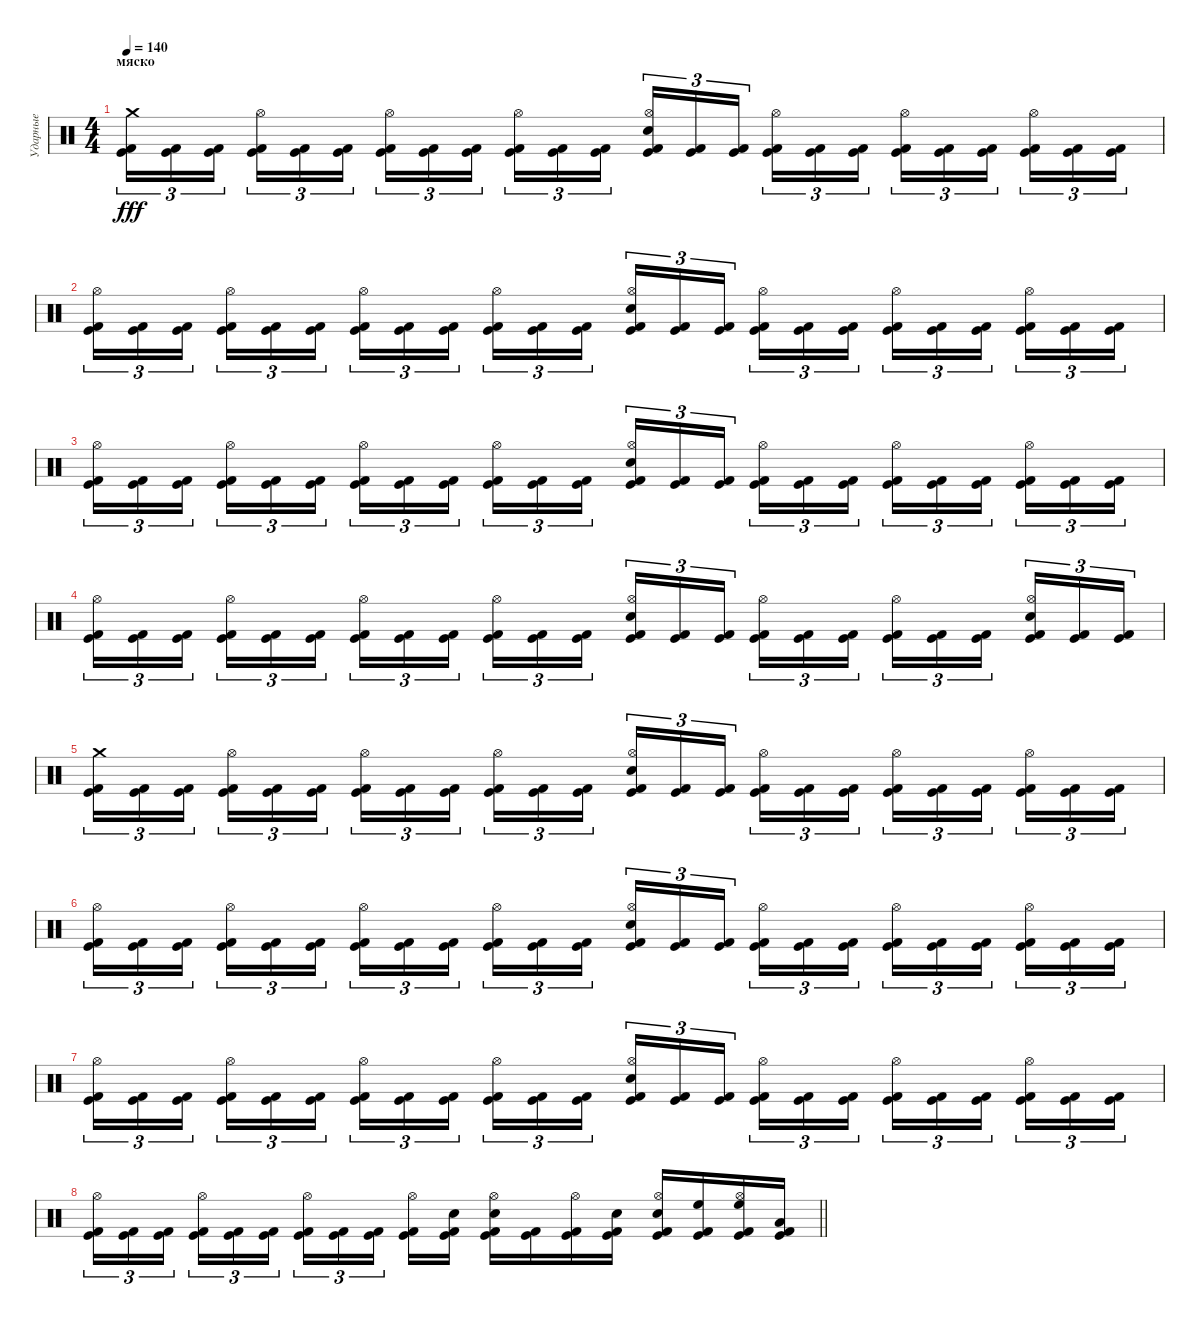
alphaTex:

\track ("Ударные" "Ударные") {instrument percussion}
\staff {score}
\articulation defaults
\ts (4 4)
\section ("" "мяско")
\tempo 140
\clef neutral
\ks c
("Kick (hit)" "Kick (hit) 2" "Crash medium (hit)").16{tu (3 2) dy fff} ("Kick (hit)" "Kick (hit) 2").16{tu (3 2)} ("Kick (hit)" "Kick (hit) 2").16{tu (3 2) beam splitsecondary} ("Hi-Hat (open)" "Kick (hit)" "Kick (hit) 2").16{tu (3 2)} ("Kick (hit)" "Kick (hit) 2").16{tu (3 2)} ("Kick (hit)" "Kick (hit) 2").16{tu (3 2)} ("Hi-Hat (open)" "Kick (hit)" "Kick (hit) 2").16{tu (3 2)} ("Kick (hit)" "Kick (hit) 2").16{tu (3 2)} ("Kick (hit)" "Kick (hit) 2").16{tu (3 2) beam splitsecondary} ("Hi-Hat (open)" "Kick (hit)" "Kick (hit) 2").16{tu (3 2)} ("Kick (hit)" "Kick (hit) 2").16{tu (3 2)} ("Kick (hit)" "Kick (hit) 2").16{tu (3 2)} ("Hi-Hat (open)" "Kick (hit)" "Kick (hit) 2" "Electric Snare (hit)").16{tu (3 2)} ("Kick (hit)" "Kick (hit) 2").16{tu (3 2)} ("Kick (hit)" "Kick (hit) 2").16{tu (3 2) beam splitsecondary} ("Hi-Hat (open)" "Kick (hit)" "Kick (hit) 2").16{tu (3 2)} ("Kick (hit)" "Kick (hit) 2").16{tu (3 2)} ("Kick (hit)" "Kick (hit) 2").16{tu (3 2)} ("Hi-Hat (open)" "Kick (hit)" "Kick (hit) 2").16{tu (3 2)} ("Kick (hit)" "Kick (hit) 2").16{tu (3 2)} ("Kick (hit)" "Kick (hit) 2").16{tu (3 2) beam splitsecondary} ("Hi-Hat (open)" "Kick (hit)" "Kick (hit) 2").16{tu (3 2)} ("Kick (hit)" "Kick (hit) 2").16{tu (3 2)} ("Kick (hit)" "Kick (hit) 2").16{tu (3 2)} |
("Hi-Hat (open)" "Kick (hit)" "Kick (hit) 2").16{tu (3 2)} ("Kick (hit)" "Kick (hit) 2").16{tu (3 2)} ("Kick (hit)" "Kick (hit) 2").16{tu (3 2) beam splitsecondary} ("Hi-Hat (open)" "Kick (hit)" "Kick (hit) 2").16{tu (3 2)} ("Kick (hit)" "Kick (hit) 2").16{tu (3 2)} ("Kick (hit)" "Kick (hit) 2").16{tu (3 2)} ("Hi-Hat (open)" "Kick (hit)" "Kick (hit) 2").16{tu (3 2)} ("Kick (hit)" "Kick (hit) 2").16{tu (3 2)} ("Kick (hit)" "Kick (hit) 2").16{tu (3 2) beam splitsecondary} ("Hi-Hat (open)" "Kick (hit)" "Kick (hit) 2").16{tu (3 2)} ("Kick (hit)" "Kick (hit) 2").16{tu (3 2)} ("Kick (hit)" "Kick (hit) 2").16{tu (3 2)} ("Hi-Hat (open)" "Kick (hit)" "Kick (hit) 2" "Electric Snare (hit)").16{tu (3 2)} ("Kick (hit)" "Kick (hit) 2").16{tu (3 2)} ("Kick (hit)" "Kick (hit) 2").16{tu (3 2) beam splitsecondary} ("Hi-Hat (open)" "Kick (hit)" "Kick (hit) 2").16{tu (3 2)} ("Kick (hit)" "Kick (hit) 2").16{tu (3 2)} ("Kick (hit)" "Kick (hit) 2").16{tu (3 2)} ("Hi-Hat (open)" "Kick (hit)" "Kick (hit) 2").16{tu (3 2)} ("Kick (hit)" "Kick (hit) 2").16{tu (3 2)} ("Kick (hit)" "Kick (hit) 2").16{tu (3 2) beam splitsecondary} ("Hi-Hat (open)" "Kick (hit)" "Kick (hit) 2").16{tu (3 2)} ("Kick (hit)" "Kick (hit) 2").16{tu (3 2)} ("Kick (hit)" "Kick (hit) 2").16{tu (3 2)} |
("Hi-Hat (open)" "Kick (hit)" "Kick (hit) 2").16{tu (3 2)} ("Kick (hit)" "Kick (hit) 2").16{tu (3 2)} ("Kick (hit)" "Kick (hit) 2").16{tu (3 2) beam splitsecondary} ("Hi-Hat (open)" "Kick (hit)" "Kick (hit) 2").16{tu (3 2)} ("Kick (hit)" "Kick (hit) 2").16{tu (3 2)} ("Kick (hit)" "Kick (hit) 2").16{tu (3 2)} ("Hi-Hat (open)" "Kick (hit)" "Kick (hit) 2").16{tu (3 2)} ("Kick (hit)" "Kick (hit) 2").16{tu (3 2)} ("Kick (hit)" "Kick (hit) 2").16{tu (3 2) beam splitsecondary} ("Hi-Hat (open)" "Kick (hit)" "Kick (hit) 2").16{tu (3 2)} ("Kick (hit)" "Kick (hit) 2").16{tu (3 2)} ("Kick (hit)" "Kick (hit) 2").16{tu (3 2)} ("Hi-Hat (open)" "Kick (hit)" "Kick (hit) 2" "Electric Snare (hit)").16{tu (3 2)} ("Kick (hit)" "Kick (hit) 2").16{tu (3 2)} ("Kick (hit)" "Kick (hit) 2").16{tu (3 2) beam splitsecondary} ("Hi-Hat (open)" "Kick (hit)" "Kick (hit) 2").16{tu (3 2)} ("Kick (hit)" "Kick (hit) 2").16{tu (3 2)} ("Kick (hit)" "Kick (hit) 2").16{tu (3 2)} ("Hi-Hat (open)" "Kick (hit)" "Kick (hit) 2").16{tu (3 2)} ("Kick (hit)" "Kick (hit) 2").16{tu (3 2)} ("Kick (hit)" "Kick (hit) 2").16{tu (3 2) beam splitsecondary} ("Hi-Hat (open)" "Kick (hit)" "Kick (hit) 2").16{tu (3 2)} ("Kick (hit)" "Kick (hit) 2").16{tu (3 2)} ("Kick (hit)" "Kick (hit) 2").16{tu (3 2)} |
("Hi-Hat (open)" "Kick (hit)" "Kick (hit) 2").16{tu (3 2)} ("Kick (hit)" "Kick (hit) 2").16{tu (3 2)} ("Kick (hit)" "Kick (hit) 2").16{tu (3 2) beam splitsecondary} ("Hi-Hat (open)" "Kick (hit)" "Kick (hit) 2").16{tu (3 2)} ("Kick (hit)" "Kick (hit) 2").16{tu (3 2)} ("Kick (hit)" "Kick (hit) 2").16{tu (3 2)} ("Hi-Hat (open)" "Kick (hit)" "Kick (hit) 2").16{tu (3 2)} ("Kick (hit)" "Kick (hit) 2").16{tu (3 2)} ("Kick (hit)" "Kick (hit) 2").16{tu (3 2) beam splitsecondary} ("Hi-Hat (open)" "Kick (hit)" "Kick (hit) 2").16{tu (3 2)} ("Kick (hit)" "Kick (hit) 2").16{tu (3 2)} ("Kick (hit)" "Kick (hit) 2").16{tu (3 2)} ("Hi-Hat (open)" "Kick (hit)" "Kick (hit) 2" "Electric Snare (hit)").16{tu (3 2)} ("Kick (hit)" "Kick (hit) 2").16{tu (3 2)} ("Kick (hit)" "Kick (hit) 2").16{tu (3 2) beam splitsecondary} ("Hi-Hat (open)" "Kick (hit)" "Kick (hit) 2").16{tu (3 2)} ("Kick (hit)" "Kick (hit) 2").16{tu (3 2)} ("Kick (hit)" "Kick (hit) 2").16{tu (3 2)} ("Hi-Hat (open)" "Kick (hit)" "Kick (hit) 2").16{tu (3 2)} ("Kick (hit)" "Kick (hit) 2").16{tu (3 2)} ("Kick (hit)" "Kick (hit) 2").16{tu (3 2) beam splitsecondary} ("Hi-Hat (open)" "Kick (hit)" "Kick (hit) 2" "Electric Snare (hit)").16{tu (3 2)} ("Kick (hit)" "Kick (hit) 2").16{tu (3 2)} ("Kick (hit)" "Kick (hit) 2").16{tu (3 2)} |
("Kick (hit)" "Kick (hit) 2" "Crash medium (hit)").16{tu (3 2)} ("Kick (hit)" "Kick (hit) 2").16{tu (3 2)} ("Kick (hit)" "Kick (hit) 2").16{tu (3 2) beam splitsecondary} ("Hi-Hat (open)" "Kick (hit)" "Kick (hit) 2").16{tu (3 2)} ("Kick (hit)" "Kick (hit) 2").16{tu (3 2)} ("Kick (hit)" "Kick (hit) 2").16{tu (3 2)} ("Hi-Hat (open)" "Kick (hit)" "Kick (hit) 2").16{tu (3 2)} ("Kick (hit)" "Kick (hit) 2").16{tu (3 2)} ("Kick (hit)" "Kick (hit) 2").16{tu (3 2) beam splitsecondary} ("Hi-Hat (open)" "Kick (hit)" "Kick (hit) 2").16{tu (3 2)} ("Kick (hit)" "Kick (hit) 2").16{tu (3 2)} ("Kick (hit)" "Kick (hit) 2").16{tu (3 2)} ("Hi-Hat (open)" "Kick (hit)" "Kick (hit) 2" "Electric Snare (hit)").16{tu (3 2)} ("Kick (hit)" "Kick (hit) 2").16{tu (3 2)} ("Kick (hit)" "Kick (hit) 2").16{tu (3 2) beam splitsecondary} ("Hi-Hat (open)" "Kick (hit)" "Kick (hit) 2").16{tu (3 2)} ("Kick (hit)" "Kick (hit) 2").16{tu (3 2)} ("Kick (hit)" "Kick (hit) 2").16{tu (3 2)} ("Hi-Hat (open)" "Kick (hit)" "Kick (hit) 2").16{tu (3 2)} ("Kick (hit)" "Kick (hit) 2").16{tu (3 2)} ("Kick (hit)" "Kick (hit) 2").16{tu (3 2) beam splitsecondary} ("Hi-Hat (open)" "Kick (hit)" "Kick (hit) 2").16{tu (3 2)} ("Kick (hit)" "Kick (hit) 2").16{tu (3 2)} ("Kick (hit)" "Kick (hit) 2").16{tu (3 2)} |
("Hi-Hat (open)" "Kick (hit)" "Kick (hit) 2").16{tu (3 2)} ("Kick (hit)" "Kick (hit) 2").16{tu (3 2)} ("Kick (hit)" "Kick (hit) 2").16{tu (3 2) beam splitsecondary} ("Hi-Hat (open)" "Kick (hit)" "Kick (hit) 2").16{tu (3 2)} ("Kick (hit)" "Kick (hit) 2").16{tu (3 2)} ("Kick (hit)" "Kick (hit) 2").16{tu (3 2)} ("Hi-Hat (open)" "Kick (hit)" "Kick (hit) 2").16{tu (3 2)} ("Kick (hit)" "Kick (hit) 2").16{tu (3 2)} ("Kick (hit)" "Kick (hit) 2").16{tu (3 2) beam splitsecondary} ("Hi-Hat (open)" "Kick (hit)" "Kick (hit) 2").16{tu (3 2)} ("Kick (hit)" "Kick (hit) 2").16{tu (3 2)} ("Kick (hit)" "Kick (hit) 2").16{tu (3 2)} ("Hi-Hat (open)" "Kick (hit)" "Kick (hit) 2" "Electric Snare (hit)").16{tu (3 2)} ("Kick (hit)" "Kick (hit) 2").16{tu (3 2)} ("Kick (hit)" "Kick (hit) 2").16{tu (3 2) beam splitsecondary} ("Hi-Hat (open)" "Kick (hit)" "Kick (hit) 2").16{tu (3 2)} ("Kick (hit)" "Kick (hit) 2").16{tu (3 2)} ("Kick (hit)" "Kick (hit) 2").16{tu (3 2)} ("Hi-Hat (open)" "Kick (hit)" "Kick (hit) 2").16{tu (3 2)} ("Kick (hit)" "Kick (hit) 2").16{tu (3 2)} ("Kick (hit)" "Kick (hit) 2").16{tu (3 2) beam splitsecondary} ("Hi-Hat (open)" "Kick (hit)" "Kick (hit) 2").16{tu (3 2)} ("Kick (hit)" "Kick (hit) 2").16{tu (3 2)} ("Kick (hit)" "Kick (hit) 2").16{tu (3 2)} |
("Hi-Hat (open)" "Kick (hit)" "Kick (hit) 2").16{tu (3 2)} ("Kick (hit)" "Kick (hit) 2").16{tu (3 2)} ("Kick (hit)" "Kick (hit) 2").16{tu (3 2) beam splitsecondary} ("Hi-Hat (open)" "Kick (hit)" "Kick (hit) 2").16{tu (3 2)} ("Kick (hit)" "Kick (hit) 2").16{tu (3 2)} ("Kick (hit)" "Kick (hit) 2").16{tu (3 2)} ("Hi-Hat (open)" "Kick (hit)" "Kick (hit) 2").16{tu (3 2)} ("Kick (hit)" "Kick (hit) 2").16{tu (3 2)} ("Kick (hit)" "Kick (hit) 2").16{tu (3 2) beam splitsecondary} ("Hi-Hat (open)" "Kick (hit)" "Kick (hit) 2").16{tu (3 2)} ("Kick (hit)" "Kick (hit) 2").16{tu (3 2)} ("Kick (hit)" "Kick (hit) 2").16{tu (3 2)} ("Hi-Hat (open)" "Kick (hit)" "Kick (hit) 2" "Electric Snare (hit)").16{tu (3 2)} ("Kick (hit)" "Kick (hit) 2").16{tu (3 2)} ("Kick (hit)" "Kick (hit) 2").16{tu (3 2) beam splitsecondary} ("Hi-Hat (open)" "Kick (hit)" "Kick (hit) 2").16{tu (3 2)} ("Kick (hit)" "Kick (hit) 2").16{tu (3 2)} ("Kick (hit)" "Kick (hit) 2").16{tu (3 2)} ("Hi-Hat (open)" "Kick (hit)" "Kick (hit) 2").16{tu (3 2)} ("Kick (hit)" "Kick (hit) 2").16{tu (3 2)} ("Kick (hit)" "Kick (hit) 2").16{tu (3 2) beam splitsecondary} ("Hi-Hat (open)" "Kick (hit)" "Kick (hit) 2").16{tu (3 2)} ("Kick (hit)" "Kick (hit) 2").16{tu (3 2)} ("Kick (hit)" "Kick (hit) 2").16{tu (3 2)} |
\barLineRight lightlight
("Hi-Hat (open)" "Kick (hit)" "Kick (hit) 2").16{tu (3 2)} ("Kick (hit)" "Kick (hit) 2").16{tu (3 2)} ("Kick (hit)" "Kick (hit) 2").16{tu (3 2) beam splitsecondary} ("Hi-Hat (open)" "Kick (hit)" "Kick (hit) 2").16{tu (3 2)} ("Kick (hit)" "Kick (hit) 2").16{tu (3 2)} ("Kick (hit)" "Kick (hit) 2").16{tu (3 2)} ("Hi-Hat (open)" "Kick (hit)" "Kick (hit) 2").16{tu (3 2)} ("Kick (hit)" "Kick (hit) 2").16{tu (3 2)} ("Kick (hit)" "Kick (hit) 2").16{tu (3 2) beam splitsecondary} ("Hi-Hat (open)" "Kick (hit)" "Kick (hit) 2").16 ("Kick (hit)" "Kick (hit) 2" "Electric Snare (hit)").16 ("Hi-Hat (open)" "Kick (hit)" "Kick (hit) 2" "Electric Snare (hit)").16 ("Kick (hit)" "Kick (hit) 2").16 ("Hi-Hat (open)" "Kick (hit)" "Kick (hit) 2").16 ("Kick (hit)" "Kick (hit) 2" "Electric Snare (hit)").16 ("Hi-Hat (open)" "Kick (hit)" "Kick (hit) 2" "Electric Snare (hit)").16 ("Kick (hit)" "Kick (hit) 2" "High Floor Tom (hit)").16 ("Hi-Hat (open)" "Kick (hit)" "Kick (hit) 2" "High Floor Tom (hit)").16 ("Kick (hit)" "Kick (hit) 2" "Low Tom (hit)").16
